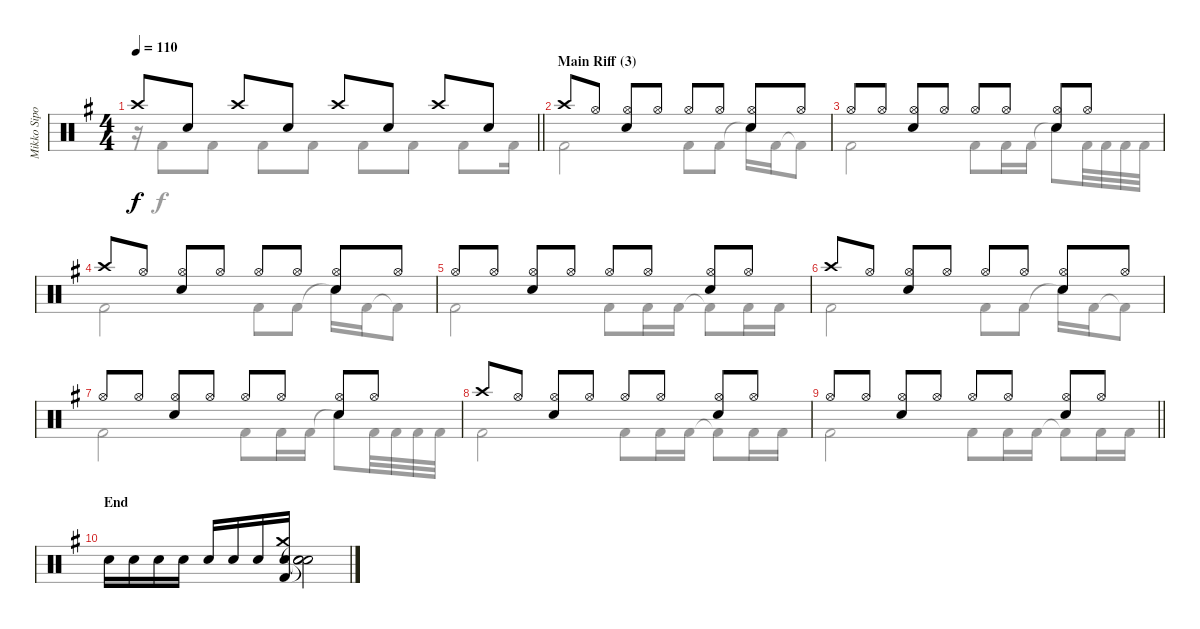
\track ("Mikko Sipola (drums)" "Mikko Sipo") {instrument percussion}
\staff {score}
\articulation defaults
\voice
\ts (4 4)
\tempo 110
\clef neutral
\barLineRight lightlight
\ks eminor "Crash high (hit)".8{dy f} "Electric Snare (hit)".8 "Crash high (hit)".8 "Electric Snare (hit)".8 "Crash high (hit)".8 "Electric Snare (hit)".8 "Crash high (hit)".8 "Electric Snare (hit)".8
|
\section ("" "Main Riff (3)")
"Crash high (hit)".8 "Hi-Hat (open)".8 ("Electric Snare (hit)" "Hi-Hat (open)").8 "Hi-Hat (open)".8 "Hi-Hat (open)".8 "Hi-Hat (open)".8 ("Electric Snare (hit)" "Hi-Hat (open)").8 "Hi-Hat (open)".8 |
"Hi-Hat (open)".8 "Hi-Hat (open)".8 ("Electric Snare (hit)" "Hi-Hat (open)").8 "Hi-Hat (open)".8 "Hi-Hat (open)".8 "Hi-Hat (open)".8 ("Electric Snare (hit)" "Hi-Hat (open)").8 "Hi-Hat (open)".8 |
"Crash high (hit)".8 "Hi-Hat (open)".8 ("Electric Snare (hit)" "Hi-Hat (open)").8 "Hi-Hat (open)".8 "Hi-Hat (open)".8 "Hi-Hat (open)".8 ("Electric Snare (hit)" "Hi-Hat (open)").8 "Hi-Hat (open)".8 |
"Hi-Hat (open)".8 "Hi-Hat (open)".8 ("Electric Snare (hit)" "Hi-Hat (open)").8 "Hi-Hat (open)".8 "Hi-Hat (open)".8 "Hi-Hat (open)".8 ("Electric Snare (hit)" "Hi-Hat (open)").8 "Hi-Hat (open)".8 |
"Crash high (hit)".8 "Hi-Hat (open)".8 ("Electric Snare (hit)" "Hi-Hat (open)").8 "Hi-Hat (open)".8 "Hi-Hat (open)".8 "Hi-Hat (open)".8 ("Electric Snare (hit)" "Hi-Hat (open)").8 "Hi-Hat (open)".8 |
"Hi-Hat (open)".8 "Hi-Hat (open)".8 ("Electric Snare (hit)" "Hi-Hat (open)").8 "Hi-Hat (open)".8 "Hi-Hat (open)".8 "Hi-Hat (open)".8 ("Electric Snare (hit)" "Hi-Hat (open)").8 "Hi-Hat (open)".8 |
"Crash high (hit)".8 "Hi-Hat (open)".8 ("Electric Snare (hit)" "Hi-Hat (open)").8 "Hi-Hat (open)".8 "Hi-Hat (open)".8 "Hi-Hat (open)".8 ("Electric Snare (hit)" "Hi-Hat (open)").8 "Hi-Hat (open)".8 |
\barLineRight lightlight "Hi-Hat (open)".8 "Hi-Hat (open)".8
("Electric Snare (hit)" "Hi-Hat (open)").8 "Hi-Hat (open)".8 "Hi-Hat (open)".8 "Hi-Hat (open)".8 ("Electric Snare (hit)" "Hi-Hat (open)").8 "Hi-Hat (open)".8 |
\section ("" "End")
"Electric Snare (hit)".16 "Electric Snare (hit)".16 "Electric Snare (hit)".16 "Electric Snare (hit)".16 "Electric Snare (hit)".16 "Electric Snare (hit)".16 "Electric Snare (hit)".16 ("Electric Snare (hit)" "Crash medium (hit)" "Kick (hit) 2").16 ("Electric Snare (hit)"{t} "Snare (hit)"{t} "Snare (hit)"{t}).2
\voice
\clef neutral
\ottava regular
\simile none
\barLineRight lightlight
\ks eminor
r.16{dy f} "Kick (hit) 2".8 "Kick (hit) 2".8 "Kick (hit) 2".8 "Kick (hit) 2".8 "Kick (hit) 2".8 "Kick (hit) 2".8 "Kick (hit) 2".8 "Kick (hit) 2".16 |
"Kick (hit) 2".2 "Kick (hit) 2".8 "Kick (hit) 2".8 "Snare (hit)"{t}.16 "Kick (hit) 2".16 "Kick (hit) 2"{t}.8 |
"Kick (hit) 2".2 "Kick (hit) 2".8 "Kick (hit) 2".16 "Kick (hit) 2".16 "Snare (hit)"{t}.8 "Kick (hit) 2".32 "Kick (hit) 2".32 "Kick (hit) 2".32 "Kick (hit) 2".32 |
"Kick (hit) 2".2 "Kick (hit) 2".8 "Kick (hit) 2".8 "Snare (hit)"{t}.16 "Kick (hit) 2".16 "Kick (hit) 2"{t}.8 |
"Kick (hit) 2".2 "Kick (hit) 2".8 "Kick (hit) 2".16 "Kick (hit) 2".16 "Kick (hit) 2"{t}.8 "Kick (hit) 2".16 "Kick (hit) 2".16 |
"Kick (hit) 2".2 "Kick (hit) 2".8 "Kick (hit) 2".8 "Snare (hit)"{t}.16 "Kick (hit) 2".16 "Kick (hit) 2"{t}.8 |
"Kick (hit) 2".2 "Kick (hit) 2".8 "Kick (hit) 2".16 "Kick (hit) 2".16 "Snare (hit)"{t}.8 "Kick (hit) 2".32 "Kick (hit) 2".32 "Kick (hit) 2".32 "Kick (hit) 2".32 |
"Kick (hit) 2".2 "Kick (hit) 2".8 "Kick (hit) 2".16 "Kick (hit) 2".16 "Kick (hit) 2"{t}.8 "Kick (hit) 2".16 "Kick (hit) 2".16 |
\barLineRight lightlight "Kick (hit) 2".2 "Kick (hit) 2".8 "Kick (hit) 2".16 "Kick (hit) 2".16 "Kick (hit) 2"{t}.8 "Kick (hit) 2".16 "Kick (hit) 2".16
|
